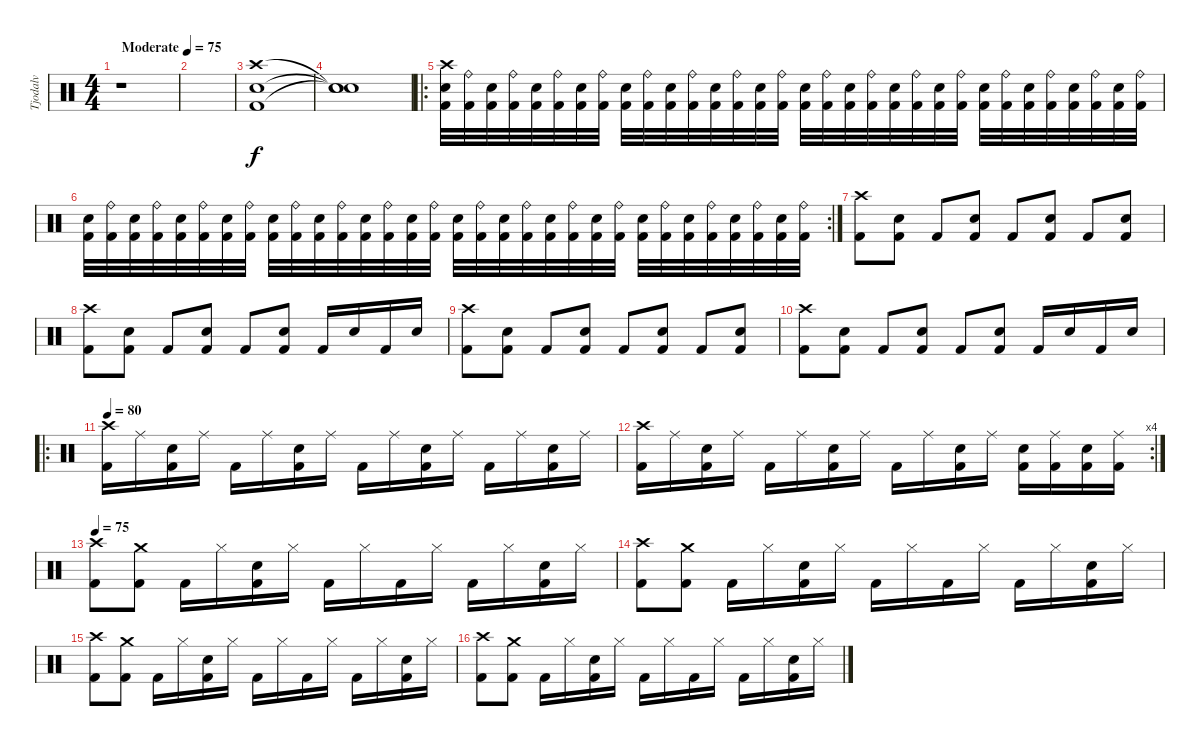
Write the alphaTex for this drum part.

\track ("Tjodalv" "Tjodalv") {instrument percussion}
\staff {score}
\articulation defaults
\ts (4 4)
\tempo (75 "Moderate")
\clef neutral
\ks c
r.1{dy f} |
|
("Crash high (hit)" "Electric Snare (hit)" "Kick (hit) 2").1 |
("Snare (hit)"{t} "Snare (hit)"{t} "Snare (hit)"{t}).1 |
\ro
("Crash high (hit)" "Electric Snare (hit)" "Kick (hit) 2").32 ("Ride (bell)" "Kick (hit) 2").32 ("Electric Snare (hit)" "Kick (hit) 2").32 ("Ride (bell)" "Kick (hit) 2").32 ("Electric Snare (hit)" "Kick (hit) 2").32 ("Ride (bell)" "Kick (hit) 2").32 ("Electric Snare (hit)" "Kick (hit) 2").32 ("Ride (bell)" "Kick (hit) 2").32 ("Electric Snare (hit)" "Kick (hit) 2").32 ("Ride (bell)" "Kick (hit) 2").32 ("Electric Snare (hit)" "Kick (hit) 2").32 ("Ride (bell)" "Kick (hit) 2").32 ("Electric Snare (hit)" "Kick (hit) 2").32 ("Ride (bell)" "Kick (hit) 2").32 ("Electric Snare (hit)" "Kick (hit) 2").32 ("Ride (bell)" "Kick (hit) 2").32 ("Electric Snare (hit)" "Kick (hit) 2").32 ("Ride (bell)" "Kick (hit) 2").32 ("Electric Snare (hit)" "Kick (hit) 2").32 ("Ride (bell)" "Kick (hit) 2").32 ("Electric Snare (hit)" "Kick (hit) 2").32 ("Ride (bell)" "Kick (hit) 2").32 ("Electric Snare (hit)" "Kick (hit) 2").32 ("Ride (bell)" "Kick (hit) 2").32 ("Electric Snare (hit)" "Kick (hit) 2").32 ("Ride (bell)" "Kick (hit) 2").32 ("Electric Snare (hit)" "Kick (hit) 2").32 ("Ride (bell)" "Kick (hit) 2").32 ("Electric Snare (hit)" "Kick (hit) 2").32 ("Ride (bell)" "Kick (hit) 2").32 ("Electric Snare (hit)" "Kick (hit) 2").32 ("Ride (bell)" "Kick (hit) 2").32 |
\rc 2
("Electric Snare (hit)" "Kick (hit) 2").32 ("Ride (bell)" "Kick (hit) 2").32 ("Electric Snare (hit)" "Kick (hit) 2").32 ("Ride (bell)" "Kick (hit) 2").32 ("Electric Snare (hit)" "Kick (hit) 2").32 ("Ride (bell)" "Kick (hit) 2").32 ("Electric Snare (hit)" "Kick (hit) 2").32 ("Ride (bell)" "Kick (hit) 2").32 ("Electric Snare (hit)" "Kick (hit) 2").32 ("Ride (bell)" "Kick (hit) 2").32 ("Electric Snare (hit)" "Kick (hit) 2").32 ("Ride (bell)" "Kick (hit) 2").32 ("Electric Snare (hit)" "Kick (hit) 2").32 ("Ride (bell)" "Kick (hit) 2").32 ("Electric Snare (hit)" "Kick (hit) 2").32 ("Ride (bell)" "Kick (hit) 2").32 ("Electric Snare (hit)" "Kick (hit) 2").32 ("Ride (bell)" "Kick (hit) 2").32 ("Electric Snare (hit)" "Kick (hit) 2").32 ("Ride (bell)" "Kick (hit) 2").32 ("Electric Snare (hit)" "Kick (hit) 2").32 ("Ride (bell)" "Kick (hit) 2").32 ("Electric Snare (hit)" "Kick (hit) 2").32 ("Ride (bell)" "Kick (hit) 2").32 ("Electric Snare (hit)" "Kick (hit) 2").32 ("Ride (bell)" "Kick (hit) 2").32 ("Electric Snare (hit)" "Kick (hit) 2").32 ("Ride (bell)" "Kick (hit) 2").32 ("Electric Snare (hit)" "Kick (hit) 2").32 ("Ride (bell)" "Kick (hit) 2").32 ("Electric Snare (hit)" "Kick (hit) 2").32 ("Ride (bell)" "Kick (hit) 2").32 |
("Crash high (hit)" "Kick (hit) 2").8 ("Electric Snare (hit)" "Kick (hit) 2").8 "Kick (hit) 2".8 ("Electric Snare (hit)" "Kick (hit) 2").8 "Kick (hit) 2".8 ("Electric Snare (hit)" "Kick (hit) 2").8 "Kick (hit) 2".8 ("Electric Snare (hit)" "Kick (hit) 2").8 |
("Crash high (hit)" "Kick (hit) 2").8 ("Electric Snare (hit)" "Kick (hit) 2").8 "Kick (hit) 2".8 ("Electric Snare (hit)" "Kick (hit) 2").8 "Kick (hit) 2".8 ("Electric Snare (hit)" "Kick (hit) 2").8 "Kick (hit) 2".16 "Electric Snare (hit)".16 "Kick (hit) 2".16 "Electric Snare (hit)".16 |
("Crash high (hit)" "Kick (hit) 2").8 ("Electric Snare (hit)" "Kick (hit) 2").8 "Kick (hit) 2".8 ("Electric Snare (hit)" "Kick (hit) 2").8 "Kick (hit) 2".8 ("Electric Snare (hit)" "Kick (hit) 2").8 "Kick (hit) 2".8 ("Electric Snare (hit)" "Kick (hit) 2").8 |
("Crash high (hit)" "Kick (hit) 2").8 ("Electric Snare (hit)" "Kick (hit) 2").8 "Kick (hit) 2".8 ("Electric Snare (hit)" "Kick (hit) 2").8 "Kick (hit) 2".8 ("Electric Snare (hit)" "Kick (hit) 2").8 "Kick (hit) 2".16 "Electric Snare (hit)".16 "Kick (hit) 2".16 "Electric Snare (hit)".16 |
\ro
\tempo 80
("Crash high (hit)" "Kick (hit) 2").16 "Ride (middle)".16 ("Electric Snare (hit)" "Kick (hit) 2").16 "Ride (middle)".16 "Kick (hit) 2".16 "Ride (middle)".16 ("Electric Snare (hit)" "Kick (hit) 2").16 "Ride (middle)".16 "Kick (hit) 2".16 "Ride (middle)".16 ("Electric Snare (hit)" "Kick (hit) 2").16 "Ride (middle)".16 "Kick (hit) 2".16 "Ride (middle)".16 ("Electric Snare (hit)" "Kick (hit) 2").16 "Ride (middle)".16 |
\rc 4
("Crash high (hit)" "Kick (hit) 2").16 "Ride (middle)".16 ("Electric Snare (hit)" "Kick (hit) 2").16 "Ride (middle)".16 "Kick (hit) 2".16 "Ride (middle)".16 ("Electric Snare (hit)" "Kick (hit) 2").16 "Ride (middle)".16 "Kick (hit) 2".16 "Ride (middle)".16 ("Electric Snare (hit)" "Kick (hit) 2").16 "Ride (middle)".16 ("Electric Snare (hit)" "Kick (hit) 2").16 ("Ride (middle)" "Kick (hit) 2").16 ("Electric Snare (hit)" "Kick (hit) 2").16 ("Ride (middle)" "Kick (hit) 2").16 |
\tempo 75
("Crash high (hit)" "Kick (hit) 2").8 ("Crash medium (hit)" "Kick (hit) 2").8 "Kick (hit) 2".16 "Hi-Hat (closed)".16 ("Electric Snare (hit)" "Kick (hit) 2").16 "Hi-Hat (closed)".16 "Kick (hit) 2".16 "Hi-Hat (closed)".16 "Kick (hit) 2".16 "Hi-Hat (closed)".16 "Kick (hit) 2".16 "Hi-Hat (closed)".16 ("Electric Snare (hit)" "Kick (hit) 2").16 "Hi-Hat (closed)".16 |
("Crash high (hit)" "Kick (hit) 2").8 ("Crash medium (hit)" "Kick (hit) 2").8 "Kick (hit) 2".16 "Hi-Hat (closed)".16 ("Electric Snare (hit)" "Kick (hit) 2").16 "Hi-Hat (closed)".16 "Kick (hit) 2".16 "Hi-Hat (closed)".16 "Kick (hit) 2".16 "Hi-Hat (closed)".16 "Kick (hit) 2".16 "Hi-Hat (closed)".16 ("Electric Snare (hit)" "Kick (hit) 2").16 "Hi-Hat (closed)".16 |
("Crash high (hit)" "Kick (hit) 2").8 ("Crash medium (hit)" "Kick (hit) 2").8 "Kick (hit) 2".16 "Hi-Hat (closed)".16 ("Electric Snare (hit)" "Kick (hit) 2").16 "Hi-Hat (closed)".16 "Kick (hit) 2".16 "Hi-Hat (closed)".16 "Kick (hit) 2".16 "Hi-Hat (closed)".16 "Kick (hit) 2".16 "Hi-Hat (closed)".16 ("Electric Snare (hit)" "Kick (hit) 2").16 "Hi-Hat (closed)".16 |
("Crash high (hit)" "Kick (hit) 2").8 ("Crash medium (hit)" "Kick (hit) 2").8 "Kick (hit) 2".16 "Hi-Hat (closed)".16 ("Electric Snare (hit)" "Kick (hit) 2").16 "Hi-Hat (closed)".16 "Kick (hit) 2".16 "Hi-Hat (closed)".16 "Kick (hit) 2".16 "Hi-Hat (closed)".16 "Kick (hit) 2".16 "Hi-Hat (closed)".16 ("Electric Snare (hit)" "Kick (hit) 2").16 "Hi-Hat (closed)".16
